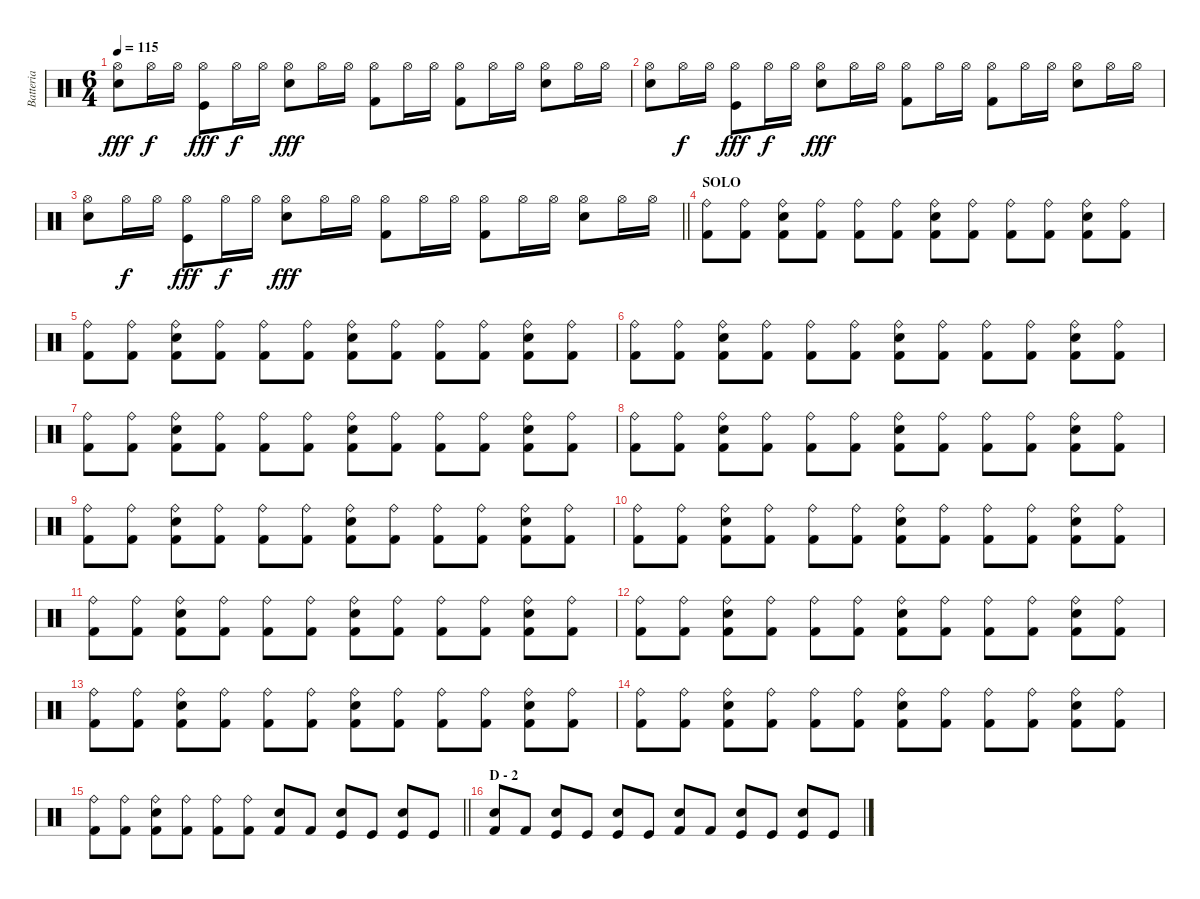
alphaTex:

\track ("Batteria" "Batteria") {instrument percussion}
\staff {score}
\articulation defaults
\ts (6 4)
\tempo 115
\clef neutral
\ks c
("Snare (hit) 2" "Hi-Hat (open)").8{dy fff} "Hi-Hat (open)".16{dy f} "Hi-Hat (open)".16 ("Kick (hit)" "Hi-Hat (open)").8{dy fff} "Hi-Hat (open)".16{dy f} "Hi-Hat (open)".16 ("Snare (hit) 2" "Hi-Hat (open)").8{dy fff} "Hi-Hat (open)".16 "Hi-Hat (open)".16 ("Kick (hit) 2" "Hi-Hat (open)").8 "Hi-Hat (open)".16 "Hi-Hat (open)".16 ("Kick (hit) 2" "Hi-Hat (open)").8 "Hi-Hat (open)".16 "Hi-Hat (open)".16 ("Snare (hit) 2" "Hi-Hat (open)").8 "Hi-Hat (open)".16 "Hi-Hat (open)".16 |
("Snare (hit) 2" "Hi-Hat (open)").8 "Hi-Hat (open)".16{dy f} "Hi-Hat (open)".16 ("Kick (hit)" "Hi-Hat (open)").8{dy fff} "Hi-Hat (open)".16{dy f} "Hi-Hat (open)".16 ("Snare (hit) 2" "Hi-Hat (open)").8{dy fff} "Hi-Hat (open)".16 "Hi-Hat (open)".16 ("Kick (hit) 2" "Hi-Hat (open)").8 "Hi-Hat (open)".16 "Hi-Hat (open)".16 ("Kick (hit) 2" "Hi-Hat (open)").8 "Hi-Hat (open)".16 "Hi-Hat (open)".16 ("Snare (hit) 2" "Hi-Hat (open)").8 "Hi-Hat (open)".16 "Hi-Hat (open)".16 |
\barLineRight lightlight
("Snare (hit) 2" "Hi-Hat (open)").8 "Hi-Hat (open)".16{dy f} "Hi-Hat (open)".16 ("Kick (hit)" "Hi-Hat (open)").8{dy fff} "Hi-Hat (open)".16{dy f} "Hi-Hat (open)".16 ("Snare (hit) 2" "Hi-Hat (open)").8{dy fff} "Hi-Hat (open)".16 "Hi-Hat (open)".16 ("Kick (hit) 2" "Hi-Hat (open)").8 "Hi-Hat (open)".16 "Hi-Hat (open)".16 ("Kick (hit) 2" "Hi-Hat (open)").8 "Hi-Hat (open)".16 "Hi-Hat (open)".16 ("Snare (hit) 2" "Hi-Hat (open)").8 "Hi-Hat (open)".16 "Hi-Hat (open)".16 |
\section ("" "SOLO")
("Kick (hit) 2" "Ride (bell)").8 ("Kick (hit) 2" "Ride (bell)").8 ("Kick (hit) 2" "Snare (hit) 2" "Ride (bell)").8 ("Kick (hit) 2" "Ride (bell)").8 ("Kick (hit) 2" "Ride (bell)").8 ("Kick (hit) 2" "Ride (bell)").8 ("Kick (hit) 2" "Snare (hit) 2" "Ride (bell)").8 ("Kick (hit) 2" "Ride (bell)").8 ("Kick (hit) 2" "Ride (bell)").8 ("Kick (hit) 2" "Ride (bell)").8 ("Kick (hit) 2" "Snare (hit) 2" "Ride (bell)").8 ("Kick (hit) 2" "Ride (bell)").8 |
("Kick (hit) 2" "Ride (bell)").8 ("Kick (hit) 2" "Ride (bell)").8 ("Kick (hit) 2" "Snare (hit) 2" "Ride (bell)").8 ("Kick (hit) 2" "Ride (bell)").8 ("Kick (hit) 2" "Ride (bell)").8 ("Kick (hit) 2" "Ride (bell)").8 ("Kick (hit) 2" "Snare (hit) 2" "Ride (bell)").8 ("Kick (hit) 2" "Ride (bell)").8 ("Kick (hit) 2" "Ride (bell)").8 ("Kick (hit) 2" "Ride (bell)").8 ("Kick (hit) 2" "Snare (hit) 2" "Ride (bell)").8 ("Kick (hit) 2" "Ride (bell)").8 |
("Kick (hit) 2" "Ride (bell)").8 ("Kick (hit) 2" "Ride (bell)").8 ("Kick (hit) 2" "Snare (hit) 2" "Ride (bell)").8 ("Kick (hit) 2" "Ride (bell)").8 ("Kick (hit) 2" "Ride (bell)").8 ("Kick (hit) 2" "Ride (bell)").8 ("Kick (hit) 2" "Snare (hit) 2" "Ride (bell)").8 ("Kick (hit) 2" "Ride (bell)").8 ("Kick (hit) 2" "Ride (bell)").8 ("Kick (hit) 2" "Ride (bell)").8 ("Kick (hit) 2" "Snare (hit) 2" "Ride (bell)").8 ("Kick (hit) 2" "Ride (bell)").8 |
("Kick (hit) 2" "Ride (bell)").8 ("Kick (hit) 2" "Ride (bell)").8 ("Kick (hit) 2" "Snare (hit) 2" "Ride (bell)").8 ("Kick (hit) 2" "Ride (bell)").8 ("Kick (hit) 2" "Ride (bell)").8 ("Kick (hit) 2" "Ride (bell)").8 ("Kick (hit) 2" "Snare (hit) 2" "Ride (bell)").8 ("Kick (hit) 2" "Ride (bell)").8 ("Kick (hit) 2" "Ride (bell)").8 ("Kick (hit) 2" "Ride (bell)").8 ("Kick (hit) 2" "Snare (hit) 2" "Ride (bell)").8 ("Kick (hit) 2" "Ride (bell)").8 |
("Kick (hit) 2" "Ride (bell)").8 ("Kick (hit) 2" "Ride (bell)").8 ("Kick (hit) 2" "Snare (hit) 2" "Ride (bell)").8 ("Kick (hit) 2" "Ride (bell)").8 ("Kick (hit) 2" "Ride (bell)").8 ("Kick (hit) 2" "Ride (bell)").8 ("Kick (hit) 2" "Snare (hit) 2" "Ride (bell)").8 ("Kick (hit) 2" "Ride (bell)").8 ("Kick (hit) 2" "Ride (bell)").8 ("Kick (hit) 2" "Ride (bell)").8 ("Kick (hit) 2" "Snare (hit) 2" "Ride (bell)").8 ("Kick (hit) 2" "Ride (bell)").8 |
("Kick (hit) 2" "Ride (bell)").8 ("Kick (hit) 2" "Ride (bell)").8 ("Kick (hit) 2" "Snare (hit) 2" "Ride (bell)").8 ("Kick (hit) 2" "Ride (bell)").8 ("Kick (hit) 2" "Ride (bell)").8 ("Kick (hit) 2" "Ride (bell)").8 ("Kick (hit) 2" "Snare (hit) 2" "Ride (bell)").8 ("Kick (hit) 2" "Ride (bell)").8 ("Kick (hit) 2" "Ride (bell)").8 ("Kick (hit) 2" "Ride (bell)").8 ("Kick (hit) 2" "Snare (hit) 2" "Ride (bell)").8 ("Kick (hit) 2" "Ride (bell)").8 |
("Kick (hit) 2" "Ride (bell)").8 ("Kick (hit) 2" "Ride (bell)").8 ("Kick (hit) 2" "Snare (hit) 2" "Ride (bell)").8 ("Kick (hit) 2" "Ride (bell)").8 ("Kick (hit) 2" "Ride (bell)").8 ("Kick (hit) 2" "Ride (bell)").8 ("Kick (hit) 2" "Snare (hit) 2" "Ride (bell)").8 ("Kick (hit) 2" "Ride (bell)").8 ("Kick (hit) 2" "Ride (bell)").8 ("Kick (hit) 2" "Ride (bell)").8 ("Kick (hit) 2" "Snare (hit) 2" "Ride (bell)").8 ("Kick (hit) 2" "Ride (bell)").8 |
("Kick (hit) 2" "Ride (bell)").8 ("Kick (hit) 2" "Ride (bell)").8 ("Kick (hit) 2" "Snare (hit) 2" "Ride (bell)").8 ("Kick (hit) 2" "Ride (bell)").8 ("Kick (hit) 2" "Ride (bell)").8 ("Kick (hit) 2" "Ride (bell)").8 ("Kick (hit) 2" "Snare (hit) 2" "Ride (bell)").8 ("Kick (hit) 2" "Ride (bell)").8 ("Kick (hit) 2" "Ride (bell)").8 ("Kick (hit) 2" "Ride (bell)").8 ("Kick (hit) 2" "Snare (hit) 2" "Ride (bell)").8 ("Kick (hit) 2" "Ride (bell)").8 |
("Kick (hit) 2" "Ride (bell)").8 ("Kick (hit) 2" "Ride (bell)").8 ("Kick (hit) 2" "Snare (hit) 2" "Ride (bell)").8 ("Kick (hit) 2" "Ride (bell)").8 ("Kick (hit) 2" "Ride (bell)").8 ("Kick (hit) 2" "Ride (bell)").8 ("Kick (hit) 2" "Snare (hit) 2" "Ride (bell)").8 ("Kick (hit) 2" "Ride (bell)").8 ("Kick (hit) 2" "Ride (bell)").8 ("Kick (hit) 2" "Ride (bell)").8 ("Kick (hit) 2" "Snare (hit) 2" "Ride (bell)").8 ("Kick (hit) 2" "Ride (bell)").8 |
("Kick (hit) 2" "Ride (bell)").8 ("Kick (hit) 2" "Ride (bell)").8 ("Kick (hit) 2" "Snare (hit) 2" "Ride (bell)").8 ("Kick (hit) 2" "Ride (bell)").8 ("Kick (hit) 2" "Ride (bell)").8 ("Kick (hit) 2" "Ride (bell)").8 ("Kick (hit) 2" "Snare (hit) 2" "Ride (bell)").8 ("Kick (hit) 2" "Ride (bell)").8 ("Kick (hit) 2" "Ride (bell)").8 ("Kick (hit) 2" "Ride (bell)").8 ("Kick (hit) 2" "Snare (hit) 2" "Ride (bell)").8 ("Kick (hit) 2" "Ride (bell)").8 |
("Kick (hit) 2" "Ride (bell)").8 ("Kick (hit) 2" "Ride (bell)").8 ("Kick (hit) 2" "Snare (hit) 2" "Ride (bell)").8 ("Kick (hit) 2" "Ride (bell)").8 ("Kick (hit) 2" "Ride (bell)").8 ("Kick (hit) 2" "Ride (bell)").8 ("Kick (hit) 2" "Snare (hit) 2" "Ride (bell)").8 ("Kick (hit) 2" "Ride (bell)").8 ("Kick (hit) 2" "Ride (bell)").8 ("Kick (hit) 2" "Ride (bell)").8 ("Kick (hit) 2" "Snare (hit) 2" "Ride (bell)").8 ("Kick (hit) 2" "Ride (bell)").8 |
\barLineRight lightlight
("Kick (hit) 2" "Ride (bell)").8 ("Kick (hit) 2" "Ride (bell)").8 ("Kick (hit) 2" "Snare (hit) 2" "Ride (bell)").8 ("Kick (hit) 2" "Ride (bell)").8 ("Kick (hit) 2" "Ride (bell)").8 ("Kick (hit) 2" "Ride (bell)").8 ("Snare (hit) 2" "Kick (hit) 2").8 "Kick (hit) 2".8 ("Kick (hit)" "Snare (hit) 2").8 "Kick (hit)".8 ("Snare (hit) 2" "Kick (hit)").8 "Kick (hit)".8 |
\section ("" "D - 2")
("Snare (hit) 2" "Kick (hit) 2").8 "Kick (hit) 2".8 ("Kick (hit)" "Snare (hit) 2").8 "Kick (hit)".8 ("Snare (hit) 2" "Kick (hit)").8 "Kick (hit)".8 ("Snare (hit) 2" "Kick (hit) 2").8 "Kick (hit) 2".8 ("Kick (hit)" "Snare (hit) 2").8 "Kick (hit)".8 ("Snare (hit) 2" "Kick (hit)").8 "Kick (hit)".8
